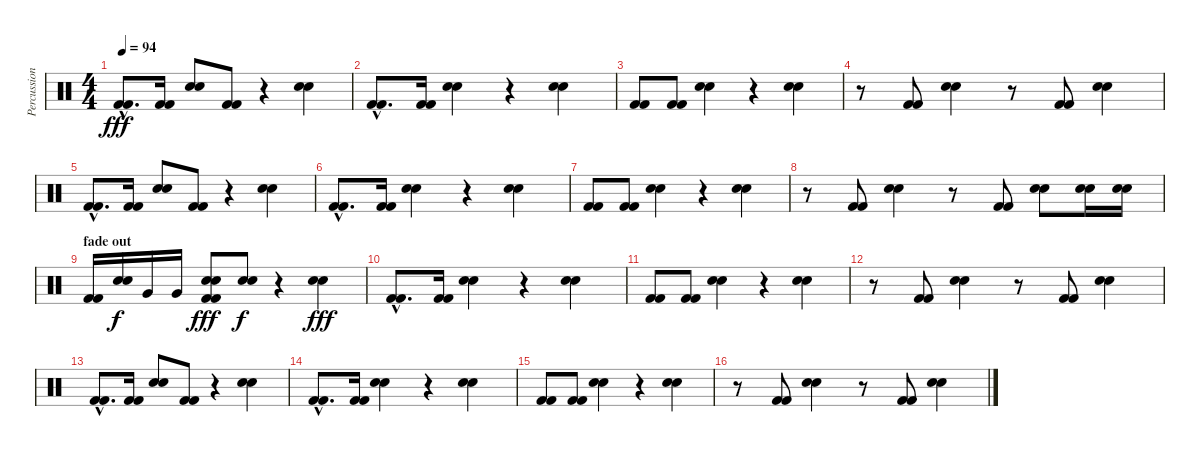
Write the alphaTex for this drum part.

\track ("Percussion" "Percussion") {instrument percussion}
\staff {score}
\articulation defaults
\ts (4 4)
\tempo 94
\clef neutral
\ks c
("Kick (hit) 2"{hac} "Kick (hit) 2"{hac}).8{d dy fff volume 16} ("Kick (hit) 2" "Kick (hit) 2").16 ("Snare (hit) 2" "Snare (hit) 2").8 ("Kick (hit) 2" "Kick (hit) 2").8 r.4 ("Snare (hit) 2" "Snare (hit) 2").4 |
("Kick (hit) 2"{hac} "Kick (hit) 2"{hac}).8{d volume 16} ("Kick (hit) 2" "Kick (hit) 2").16 ("Snare (hit) 2" "Snare (hit) 2").4 r.4 ("Snare (hit) 2" "Snare (hit) 2").4 |
("Kick (hit) 2" "Kick (hit) 2").8{volume 16} ("Kick (hit) 2" "Kick (hit) 2").8 ("Snare (hit) 2" "Snare (hit) 2").4 r.4 ("Snare (hit) 2" "Snare (hit) 2").4 |
r.8{volume 16} ("Kick (hit) 2" "Kick (hit) 2").8 ("Snare (hit) 2" "Snare (hit) 2").4 r.8 ("Kick (hit) 2" "Kick (hit) 2").8 ("Snare (hit) 2" "Snare (hit) 2").4 |
("Kick (hit) 2"{hac} "Kick (hit) 2"{hac}).8{d volume 16} ("Kick (hit) 2" "Kick (hit) 2").16 ("Snare (hit) 2" "Snare (hit) 2").8 ("Kick (hit) 2" "Kick (hit) 2").8 r.4 ("Snare (hit) 2" "Snare (hit) 2").4 |
("Kick (hit) 2"{hac} "Kick (hit) 2"{hac}).8{d volume 16} ("Kick (hit) 2" "Kick (hit) 2").16 ("Snare (hit) 2" "Snare (hit) 2").4 r.4 ("Snare (hit) 2" "Snare (hit) 2").4 |
("Kick (hit) 2" "Kick (hit) 2").8{volume 16} ("Kick (hit) 2" "Kick (hit) 2").8 ("Snare (hit) 2" "Snare (hit) 2").4 r.4 ("Snare (hit) 2" "Snare (hit) 2").4 |
r.8{volume 16} ("Kick (hit) 2" "Kick (hit) 2").8 ("Snare (hit) 2" "Snare (hit) 2").4 r.8 ("Kick (hit) 2" "Kick (hit) 2").8 ("Snare (hit) 2" "Snare (hit) 2").8 ("Snare (hit) 2" "Snare (hit) 2").16 ("Snare (hit) 2" "Snare (hit) 2").16 |
\section ("" "fade out")
("Kick (hit) 2" "Kick (hit) 2").16{volume 12} ("Snare (hit) 2" "Snare (hit) 2").16{dy f} "Very Low Tom (hit)".16 "Very Low Tom (hit)".16 ("Snare (hit) 2" "Snare (hit) 2" "Kick (hit) 2" "Kick (hit) 2").8{dy fff} ("Snare (hit) 2" "Snare (hit) 2").8{dy f} r.4 ("Snare (hit) 2" "Snare (hit) 2").4{dy fff} |
("Kick (hit) 2"{hac} "Kick (hit) 2"{hac}).8{d} ("Kick (hit) 2" "Kick (hit) 2").16 ("Snare (hit) 2" "Snare (hit) 2").4 r.4 ("Snare (hit) 2" "Snare (hit) 2").4 |
("Kick (hit) 2" "Kick (hit) 2").8{volume 8} ("Kick (hit) 2" "Kick (hit) 2").8 ("Snare (hit) 2" "Snare (hit) 2").4 r.4 ("Snare (hit) 2" "Snare (hit) 2").4 |
r.8 ("Kick (hit) 2" "Kick (hit) 2").8 ("Snare (hit) 2" "Snare (hit) 2").4 r.8 ("Kick (hit) 2" "Kick (hit) 2").8 ("Snare (hit) 2" "Snare (hit) 2").4 |
("Kick (hit) 2"{hac} "Kick (hit) 2"{hac}).8{d volume 4} ("Kick (hit) 2" "Kick (hit) 2").16 ("Snare (hit) 2" "Snare (hit) 2").8 ("Kick (hit) 2" "Kick (hit) 2").8 r.4 ("Snare (hit) 2" "Snare (hit) 2").4 |
("Kick (hit) 2"{hac} "Kick (hit) 2"{hac}).8{d} ("Kick (hit) 2" "Kick (hit) 2").16 ("Snare (hit) 2" "Snare (hit) 2").4 r.4 ("Snare (hit) 2" "Snare (hit) 2").4 |
("Kick (hit) 2" "Kick (hit) 2").8{volume 0} ("Kick (hit) 2" "Kick (hit) 2").8 ("Snare (hit) 2" "Snare (hit) 2").4 r.4 ("Snare (hit) 2" "Snare (hit) 2").4 |
r.8 ("Kick (hit) 2" "Kick (hit) 2").8 ("Snare (hit) 2" "Snare (hit) 2").4 r.8 ("Kick (hit) 2" "Kick (hit) 2").8 ("Snare (hit) 2" "Snare (hit) 2").4
